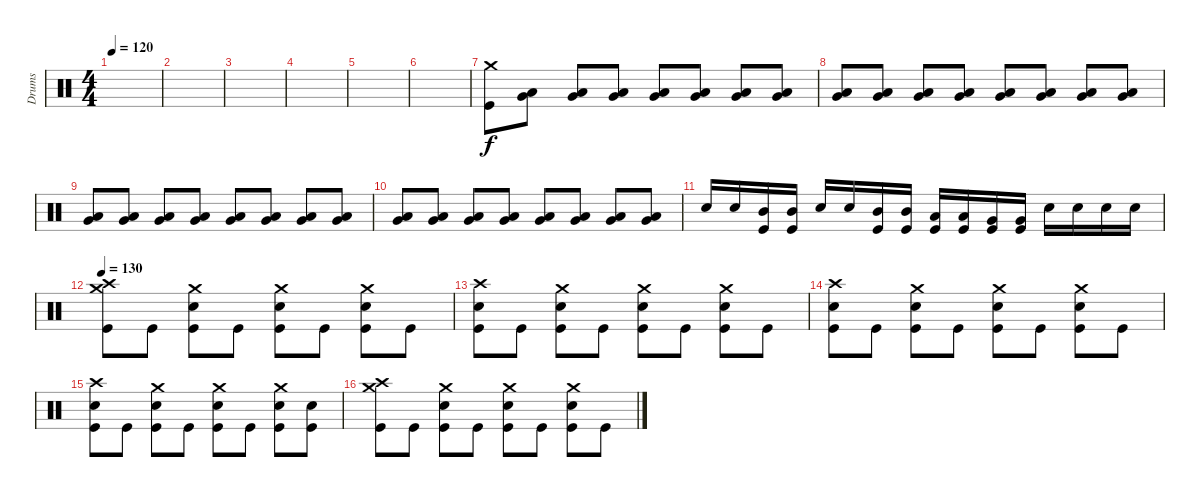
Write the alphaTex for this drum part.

\track ("Drums" "Drums") {instrument percussion}
\staff {score}
\articulation defaults
\ts (4 4)
\tempo 120
\clef neutral
\ks c
|
|
|
|
|
|
("Crash medium (hit)" "Kick (hit)").8 ("Low Tom (hit)" "Very Low Tom (hit)").8 ("Low Tom (hit)" "Very Low Tom (hit)").8 ("Low Tom (hit)" "Very Low Tom (hit)").8 ("Low Tom (hit)" "Very Low Tom (hit)").8 ("Low Tom (hit)" "Very Low Tom (hit)").8 ("Low Tom (hit)" "Very Low Tom (hit)").8 ("Low Tom (hit)" "Very Low Tom (hit)").8 |
("Low Tom (hit)" "Very Low Tom (hit)").8 ("Low Tom (hit)" "Very Low Tom (hit)").8 ("Low Tom (hit)" "Very Low Tom (hit)").8 ("Low Tom (hit)" "Very Low Tom (hit)").8 ("Low Tom (hit)" "Very Low Tom (hit)").8 ("Low Tom (hit)" "Very Low Tom (hit)").8 ("Low Tom (hit)" "Very Low Tom (hit)").8 ("Low Tom (hit)" "Very Low Tom (hit)").8 |
("Low Tom (hit)" "Very Low Tom (hit)").8 ("Low Tom (hit)" "Very Low Tom (hit)").8 ("Low Tom (hit)" "Very Low Tom (hit)").8 ("Low Tom (hit)" "Very Low Tom (hit)").8 ("Low Tom (hit)" "Very Low Tom (hit)").8 ("Low Tom (hit)" "Very Low Tom (hit)").8 ("Low Tom (hit)" "Very Low Tom (hit)").8 ("Low Tom (hit)" "Very Low Tom (hit)").8 |
("Low Tom (hit)" "Very Low Tom (hit)").8 ("Low Tom (hit)" "Very Low Tom (hit)").8 ("Low Tom (hit)" "Very Low Tom (hit)").8 ("Low Tom (hit)" "Very Low Tom (hit)").8 ("Low Tom (hit)" "Very Low Tom (hit)").8 ("Low Tom (hit)" "Very Low Tom (hit)").8 ("Low Tom (hit)" "Very Low Tom (hit)").8 ("Low Tom (hit)" "Very Low Tom (hit)").8 |
"Snare (hit) 2".16 "Snare (hit) 2".16 ("Mid Tom (hit)" "Kick (hit)").16 ("Mid Tom (hit)" "Kick (hit)").16 "Snare (hit) 2".16 "Snare (hit) 2".16 ("Mid Tom (hit)" "Kick (hit)").16 ("Mid Tom (hit)" "Kick (hit)").16 ("Low Tom (hit)" "Kick (hit)").16 ("Low Tom (hit)" "Kick (hit)").16 ("Very Low Tom (hit)" "Kick (hit)").16 ("Very Low Tom (hit)" "Kick (hit)").16 "Snare (hit) 2".16 "Snare (hit) 2".16 "Snare (hit) 2".16 "Snare (hit) 2".16 |
\tempo 130
("Crash high (hit)" "Crash medium (hit)" "Kick (hit)").8 "Kick (hit)".8 ("Crash medium (hit)" "Snare (hit) 2" "Kick (hit)").8 "Kick (hit)".8 ("Crash medium (hit)" "Snare (hit) 2" "Kick (hit)").8 "Kick (hit)".8 ("Crash medium (hit)" "Snare (hit) 2" "Kick (hit)").8 "Kick (hit)".8 |
("Crash high (hit)" "Snare (hit) 2" "Kick (hit)").8 "Kick (hit)".8 ("Crash medium (hit)" "Snare (hit) 2" "Kick (hit)").8 "Kick (hit)".8 ("Crash medium (hit)" "Snare (hit) 2" "Kick (hit)").8 "Kick (hit)".8 ("Crash medium (hit)" "Snare (hit) 2" "Kick (hit)").8 "Kick (hit)".8 |
("Crash high (hit)" "Snare (hit) 2" "Kick (hit)").8 "Kick (hit)".8 ("Crash medium (hit)" "Snare (hit) 2" "Kick (hit)").8 "Kick (hit)".8 ("Crash medium (hit)" "Snare (hit) 2" "Kick (hit)").8 "Kick (hit)".8 ("Crash medium (hit)" "Snare (hit) 2" "Kick (hit)").8 "Kick (hit)".8 |
("Crash high (hit)" "Snare (hit) 2" "Kick (hit)").8 "Kick (hit)".8 ("Crash medium (hit)" "Snare (hit) 2" "Kick (hit)").8 "Kick (hit)".8 ("Crash medium (hit)" "Snare (hit) 2" "Kick (hit)").8 "Kick (hit)".8 ("Crash medium (hit)" "Snare (hit) 2" "Kick (hit)").8 ("Snare (hit) 2" "Kick (hit)").8 |
("Crash high (hit)" "Crash medium (hit)" "Kick (hit)").8 "Kick (hit)".8 ("Crash medium (hit)" "Snare (hit) 2" "Kick (hit)").8 "Kick (hit)".8 ("Crash medium (hit)" "Snare (hit) 2" "Kick (hit)").8 "Kick (hit)".8 ("Crash medium (hit)" "Snare (hit) 2" "Kick (hit)").8 "Kick (hit)".8
